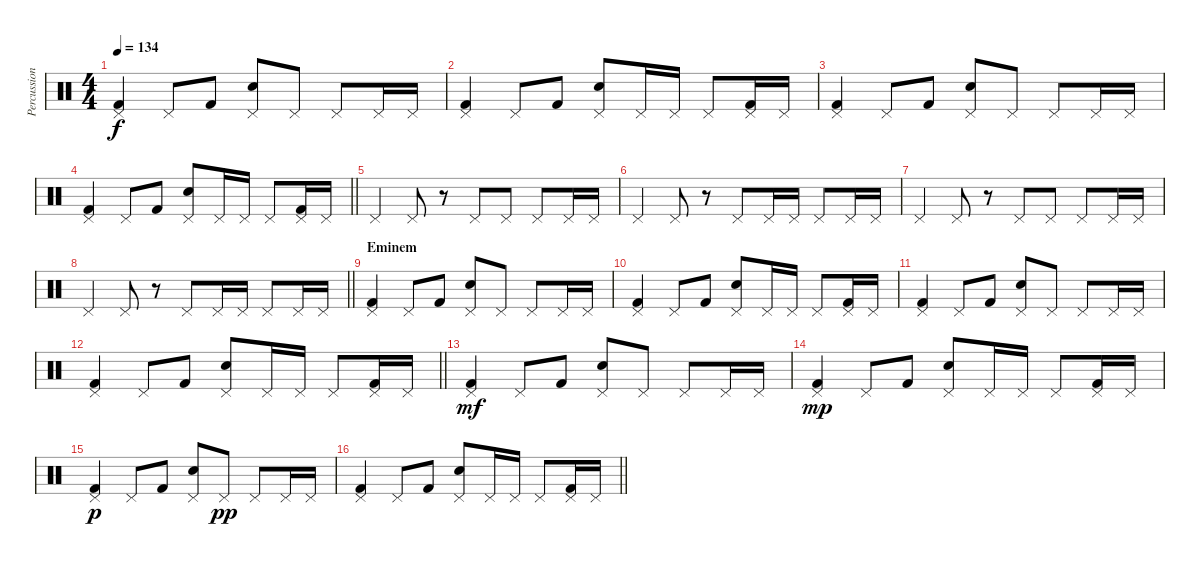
\track ("Percussion" "Percussion") {instrument percussion}
\staff {score}
\articulation defaults
\ts (4 4)
\tempo 134
\clef neutral
\ks c
("Pedal Hi-Hat (hit)" "Kick (hit) 2").4{dy f} "Pedal Hi-Hat (hit)".8 "Kick (hit) 2".8 ("Pedal Hi-Hat (hit)" "Electric Snare (hit)").8 "Pedal Hi-Hat (hit)".8 "Pedal Hi-Hat (hit)".8 "Pedal Hi-Hat (hit)".16 "Pedal Hi-Hat (hit)".16 |
("Pedal Hi-Hat (hit)" "Kick (hit) 2").4 "Pedal Hi-Hat (hit)".8 "Kick (hit) 2".8 ("Pedal Hi-Hat (hit)" "Electric Snare (hit)").8 "Pedal Hi-Hat (hit)".16 "Pedal Hi-Hat (hit)".16 "Pedal Hi-Hat (hit)".8 ("Pedal Hi-Hat (hit)" "Kick (hit) 2").16 "Pedal Hi-Hat (hit)".16 |
("Pedal Hi-Hat (hit)" "Kick (hit) 2").4 "Pedal Hi-Hat (hit)".8 "Kick (hit) 2".8 ("Pedal Hi-Hat (hit)" "Electric Snare (hit)").8 "Pedal Hi-Hat (hit)".8 "Pedal Hi-Hat (hit)".8 "Pedal Hi-Hat (hit)".16 "Pedal Hi-Hat (hit)".16 |
\barLineRight lightlight
("Pedal Hi-Hat (hit)" "Kick (hit) 2").4 "Pedal Hi-Hat (hit)".8 "Kick (hit) 2".8 ("Pedal Hi-Hat (hit)" "Electric Snare (hit)").8 "Pedal Hi-Hat (hit)".16 "Pedal Hi-Hat (hit)".16 "Pedal Hi-Hat (hit)".8 ("Pedal Hi-Hat (hit)" "Kick (hit) 2").16 "Pedal Hi-Hat (hit)".16 |
"Pedal Hi-Hat (hit)".4 "Pedal Hi-Hat (hit)".8 r.8 "Pedal Hi-Hat (hit)".8 "Pedal Hi-Hat (hit)".8 "Pedal Hi-Hat (hit)".8 "Pedal Hi-Hat (hit)".16 "Pedal Hi-Hat (hit)".16 |
"Pedal Hi-Hat (hit)".4 "Pedal Hi-Hat (hit)".8 r.8 "Pedal Hi-Hat (hit)".8 "Pedal Hi-Hat (hit)".16 "Pedal Hi-Hat (hit)".16 "Pedal Hi-Hat (hit)".8 "Pedal Hi-Hat (hit)".16 "Pedal Hi-Hat (hit)".16 |
"Pedal Hi-Hat (hit)".4 "Pedal Hi-Hat (hit)".8 r.8 "Pedal Hi-Hat (hit)".8 "Pedal Hi-Hat (hit)".8 "Pedal Hi-Hat (hit)".8 "Pedal Hi-Hat (hit)".16 "Pedal Hi-Hat (hit)".16 |
\barLineRight lightlight "Pedal Hi-Hat (hit)".4 "Pedal Hi-Hat (hit)".8
r.8 "Pedal Hi-Hat (hit)".8 "Pedal Hi-Hat (hit)".16 "Pedal Hi-Hat (hit)".16 "Pedal Hi-Hat (hit)".8 "Pedal Hi-Hat (hit)".16 "Pedal Hi-Hat (hit)".16 |
\section ("" "Eminem")
("Pedal Hi-Hat (hit)" "Kick (hit) 2").4 "Pedal Hi-Hat (hit)".8 "Kick (hit) 2".8 ("Pedal Hi-Hat (hit)" "Electric Snare (hit)").8 "Pedal Hi-Hat (hit)".8 "Pedal Hi-Hat (hit)".8 "Pedal Hi-Hat (hit)".16 "Pedal Hi-Hat (hit)".16 |
("Pedal Hi-Hat (hit)" "Kick (hit) 2").4 "Pedal Hi-Hat (hit)".8 "Kick (hit) 2".8 ("Pedal Hi-Hat (hit)" "Electric Snare (hit)").8 "Pedal Hi-Hat (hit)".16 "Pedal Hi-Hat (hit)".16 "Pedal Hi-Hat (hit)".8 ("Pedal Hi-Hat (hit)" "Kick (hit) 2").16 "Pedal Hi-Hat (hit)".16 |
("Pedal Hi-Hat (hit)" "Kick (hit) 2").4 "Pedal Hi-Hat (hit)".8 "Kick (hit) 2".8 ("Pedal Hi-Hat (hit)" "Electric Snare (hit)").8 "Pedal Hi-Hat (hit)".8 "Pedal Hi-Hat (hit)".8 "Pedal Hi-Hat (hit)".16 "Pedal Hi-Hat (hit)".16 |
\barLineRight lightlight
("Pedal Hi-Hat (hit)" "Kick (hit) 2").4 "Pedal Hi-Hat (hit)".8 "Kick (hit) 2".8 ("Pedal Hi-Hat (hit)" "Electric Snare (hit)").8 "Pedal Hi-Hat (hit)".16 "Pedal Hi-Hat (hit)".16 "Pedal Hi-Hat (hit)".8 ("Pedal Hi-Hat (hit)" "Kick (hit) 2").16 "Pedal Hi-Hat (hit)".16 |
("Pedal Hi-Hat (hit)" "Kick (hit) 2").4{dy mf} "Pedal Hi-Hat (hit)".8 "Kick (hit) 2".8 ("Pedal Hi-Hat (hit)" "Electric Snare (hit)").8 "Pedal Hi-Hat (hit)".8 "Pedal Hi-Hat (hit)".8 "Pedal Hi-Hat (hit)".16 "Pedal Hi-Hat (hit)".16 |
("Pedal Hi-Hat (hit)" "Kick (hit) 2").4{dy mp} "Pedal Hi-Hat (hit)".8 "Kick (hit) 2".8 ("Pedal Hi-Hat (hit)" "Electric Snare (hit)").8 "Pedal Hi-Hat (hit)".16 "Pedal Hi-Hat (hit)".16 "Pedal Hi-Hat (hit)".8 ("Pedal Hi-Hat (hit)" "Kick (hit) 2").16 "Pedal Hi-Hat (hit)".16 |
("Pedal Hi-Hat (hit)" "Kick (hit) 2").4{dy p} "Pedal Hi-Hat (hit)".8 "Kick (hit) 2".8 ("Pedal Hi-Hat (hit)" "Electric Snare (hit)").8 "Pedal Hi-Hat (hit)".8{dy pp} "Pedal Hi-Hat (hit)".8 "Pedal Hi-Hat (hit)".16 "Pedal Hi-Hat (hit)".16 |
\barLineRight lightlight
("Pedal Hi-Hat (hit)" "Kick (hit) 2").4 "Pedal Hi-Hat (hit)".8 "Kick (hit) 2".8 ("Pedal Hi-Hat (hit)" "Electric Snare (hit)").8 "Pedal Hi-Hat (hit)".16 "Pedal Hi-Hat (hit)".16 "Pedal Hi-Hat (hit)".8 ("Pedal Hi-Hat (hit)" "Kick (hit) 2").16 "Pedal Hi-Hat (hit)".16
